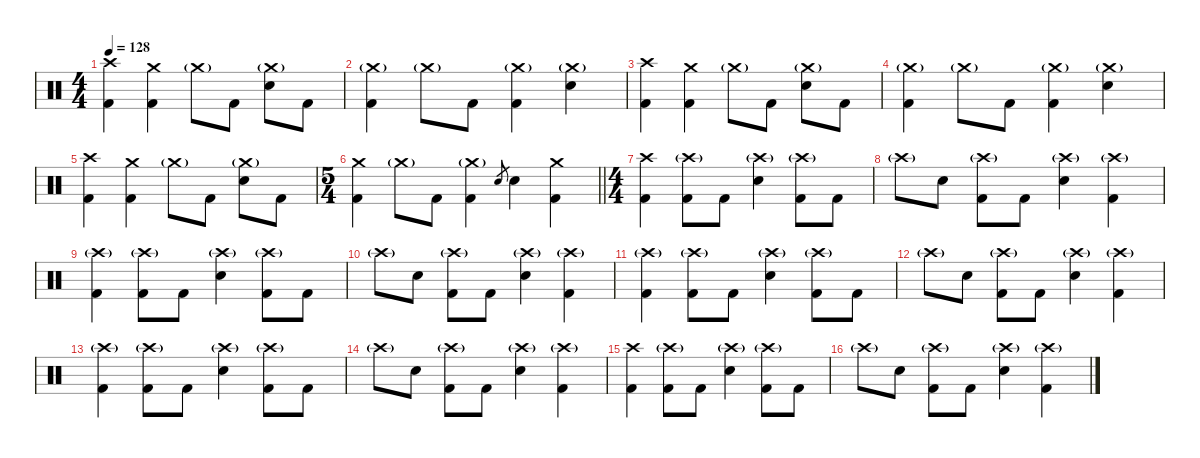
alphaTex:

\defaultSystemsLayout 4
\hideDynamics
\bracketExtendMode nobrackets
\singleTrackTrackNamePolicy hidden
\multiTrackTrackNamePolicy hidden
\otherSystemsTrackNameOrientation horizontal
\track ("Gene Hoglan" "drm.") {instrument percussion}
\staff {score}
\articulation defaults
\ts (4 4)
\tempo 128
\clef neutral
\ks c
("Crash high (hit)" "Kick (hit) 2").4{dy f beam Down} ("Crash medium (hit)" "Kick (hit) 2").4{beam Down} "Crash medium (hit)"{g}.8{dy mf beam Down} "Kick (hit) 2".8{dy f beam Down} ("Crash medium (hit)"{g} "Snare (hit) 2").8{beam Down} "Kick (hit) 2".8{beam Down} |
("Crash medium (hit)"{g} "Kick (hit) 2").4{beam Down} "Crash medium (hit)"{g}.8{dy mf beam Down} "Kick (hit) 2".8{dy f beam Down} ("Crash medium (hit)"{g} "Kick (hit) 2").4{beam Down} ("Crash medium (hit)"{g} "Snare (hit) 2").4{beam Down} |
("Crash high (hit)" "Kick (hit) 2").4{beam Down} ("Crash medium (hit)" "Kick (hit) 2").4{beam Down} "Crash medium (hit)"{g}.8{dy mf beam Down} "Kick (hit) 2".8{dy f beam Down} ("Crash medium (hit)"{g} "Snare (hit) 2").8{beam Down} "Kick (hit) 2".8{beam Down} |
("Crash medium (hit)"{g} "Kick (hit) 2").4{beam Down} "Crash medium (hit)"{g}.8{dy mf beam Down} "Kick (hit) 2".8{dy f beam Down} ("Crash medium (hit)"{g} "Kick (hit) 2").4{beam Down} ("Crash medium (hit)"{g} "Snare (hit) 2").4{beam Down} |
("Crash high (hit)" "Kick (hit) 2").4{beam Down} ("Crash medium (hit)" "Kick (hit) 2").4{beam Down} "Crash medium (hit)"{g}.8{dy mf beam Down} "Kick (hit) 2".8{dy f beam Down} ("Crash medium (hit)"{g} "Snare (hit) 2").8{beam Down} "Kick (hit) 2".8{beam Down} |
\ts (5 4)
\beaming (8 6 4)
\barLineRight lightlight
("Crash medium (hit)" "Kick (hit) 2").4{beam Down} "Crash medium (hit)"{g}.8{dy mf beam Down} "Kick (hit) 2".8{dy f beam Down} ("Crash medium (hit)"{g} "Kick (hit) 2").4{beam Down} "Electric Snare (hit)".8{gr dy mf beam Up} "Snare (hit) 2".4{dy f beam Down} ("Crash medium (hit)" "Kick (hit) 2").4{beam Down} |
\ts (4 4)
\beaming (8 2 2 2 2)
("Crash high (hit)" "Kick (hit) 2").4{beam Down} ("Crash high (hit)"{g} "Kick (hit) 2").8{beam Down} "Kick (hit) 2".8{beam Down} ("Crash high (hit)"{g} "Snare (hit) 2").4{beam Down} ("Crash high (hit)"{g} "Kick (hit) 2").8{beam Down} "Kick (hit) 2".8{beam Down} |
"Crash high (hit)"{g}.8{dy mf beam Down} "Snare (hit) 2".8{dy f beam Down} ("Crash high (hit)"{g} "Kick (hit) 2").8{beam Down} "Kick (hit) 2".8{beam Down} ("Crash high (hit)"{g} "Snare (hit) 2").4{beam Down} ("Crash high (hit)"{g} "Kick (hit) 2").4{beam Down} |
("Crash high (hit)"{g} "Kick (hit) 2").4{beam Down} ("Crash high (hit)"{g} "Kick (hit) 2").8{beam Down} "Kick (hit) 2".8{beam Down} ("Crash high (hit)"{g} "Snare (hit) 2").4{beam Down} ("Crash high (hit)"{g} "Kick (hit) 2").8{beam Down} "Kick (hit) 2".8{beam Down} |
"Crash high (hit)"{g}.8{dy mf beam Down} "Snare (hit) 2".8{dy f beam Down} ("Crash high (hit)"{g} "Kick (hit) 2").8{beam Down} "Kick (hit) 2".8{beam Down} ("Crash high (hit)"{g} "Snare (hit) 2").4{beam Down} ("Crash high (hit)"{g} "Kick (hit) 2").4{beam Down} |
("Crash high (hit)"{g} "Kick (hit) 2").4{beam Down} ("Crash high (hit)"{g} "Kick (hit) 2").8{beam Down} "Kick (hit) 2".8{beam Down} ("Crash high (hit)"{g} "Snare (hit) 2").4{beam Down} ("Crash high (hit)"{g} "Kick (hit) 2").8{beam Down} "Kick (hit) 2".8{beam Down} |
"Crash high (hit)"{g}.8{dy mf beam Down} "Snare (hit) 2".8{dy f beam Down} ("Crash high (hit)"{g} "Kick (hit) 2").8{beam Down} "Kick (hit) 2".8{beam Down} ("Crash high (hit)"{g} "Snare (hit) 2").4{beam Down} ("Crash high (hit)"{g} "Kick (hit) 2").4{beam Down} |
("Crash high (hit)"{g} "Kick (hit) 2").4{beam Down} ("Crash high (hit)"{g} "Kick (hit) 2").8{beam Down} "Kick (hit) 2".8{beam Down} ("Crash high (hit)"{g} "Snare (hit) 2").4{beam Down} ("Crash high (hit)"{g} "Kick (hit) 2").8{beam Down} "Kick (hit) 2".8{beam Down} |
"Crash high (hit)"{g}.8{dy mf beam Down} "Snare (hit) 2".8{dy f beam Down} ("Crash high (hit)"{g} "Kick (hit) 2").8{beam Down} "Kick (hit) 2".8{beam Down} ("Crash high (hit)"{g} "Snare (hit) 2").4{beam Down} ("Crash high (hit)"{g} "Kick (hit) 2").4{beam Down} |
("Crash high (hit)" "Kick (hit) 2").4{beam Down} ("Crash high (hit)"{g} "Kick (hit) 2").8{beam Down} "Kick (hit) 2".8{beam Down} ("Crash high (hit)"{g} "Snare (hit) 2").4{beam Down} ("Crash high (hit)"{g} "Kick (hit) 2").8{beam Down} "Kick (hit) 2".8{beam Down} |
"Crash high (hit)"{g}.8{dy mf beam Down} "Snare (hit) 2".8{dy f beam Down} ("Crash high (hit)"{g} "Kick (hit) 2").8{beam Down} "Kick (hit) 2".8{beam Down} ("Crash high (hit)"{g} "Snare (hit) 2").4{beam Down} ("Crash high (hit)"{g} "Kick (hit) 2").4{beam Down}
